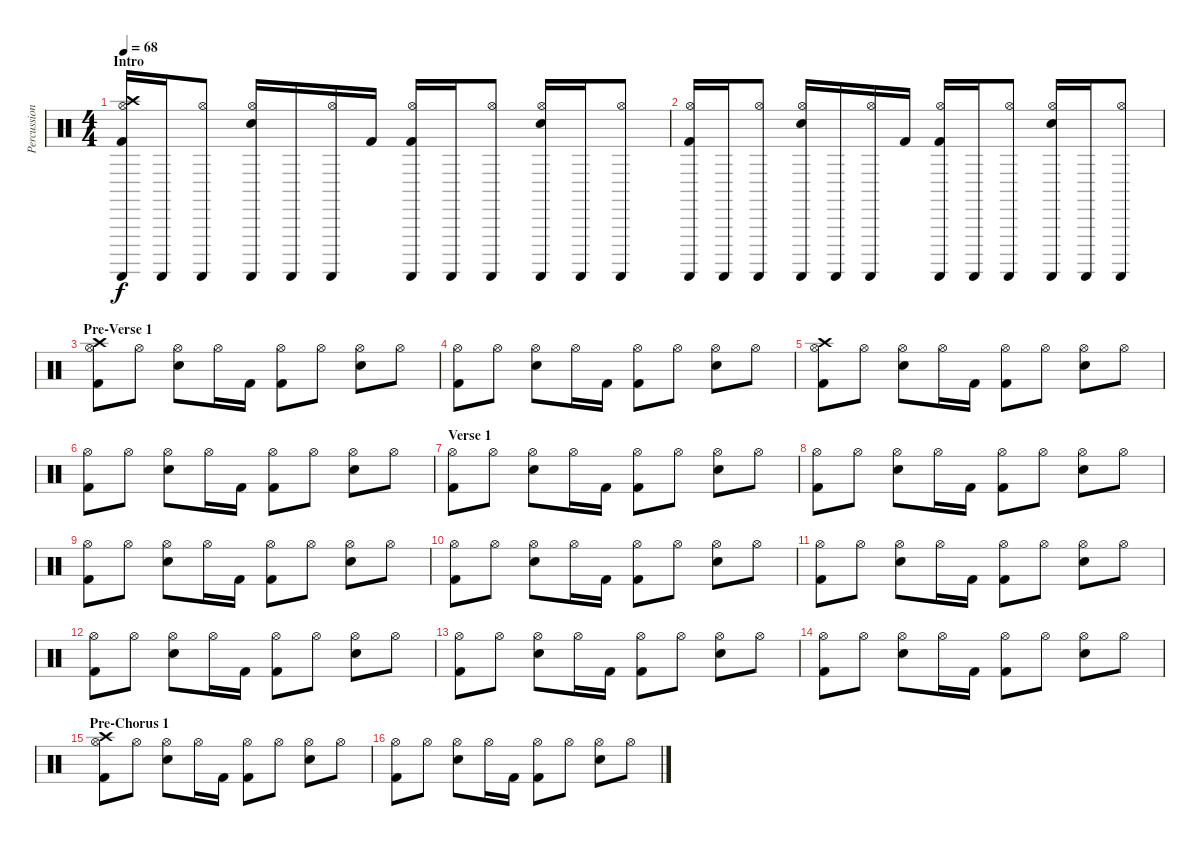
\track ("Percussions" "Percussion") {instrument percussion}
\staff {score}
\articulation defaults
\ts (4 4)
\section ("" "Intro")
\tempo 68
\clef neutral
\ks c
("Hi-Hat (open)" "Guiro (scrap-return)" "Crash high (hit)" "Kick (hit) 2").16{dy f} "Guiro (scrap-return)".16 ("Hi-Hat (open)" "Guiro (scrap-return)").8 ("Hi-Hat (open)" "Guiro (scrap-return)" "Snare (hit) 2").16 "Guiro (scrap-return)".16 ("Hi-Hat (open)" "Guiro (scrap-return)").16 "Kick (hit) 2".16 ("Hi-Hat (open)" "Guiro (scrap-return)" "Kick (hit) 2").16 "Guiro (scrap-return)".16 ("Hi-Hat (open)" "Guiro (scrap-return)").8 ("Hi-Hat (open)" "Guiro (scrap-return)" "Snare (hit) 2").16 "Guiro (scrap-return)".16 ("Hi-Hat (open)" "Guiro (scrap-return)").8 |
("Hi-Hat (open)" "Guiro (scrap-return)" "Kick (hit) 2").16 "Guiro (scrap-return)".16 ("Hi-Hat (open)" "Guiro (scrap-return)").8 ("Hi-Hat (open)" "Guiro (scrap-return)" "Snare (hit) 2").16 "Guiro (scrap-return)".16 ("Hi-Hat (open)" "Guiro (scrap-return)").16 "Kick (hit) 2".16 ("Hi-Hat (open)" "Guiro (scrap-return)" "Kick (hit) 2").16 "Guiro (scrap-return)".16 ("Hi-Hat (open)" "Guiro (scrap-return)").8 ("Hi-Hat (open)" "Guiro (scrap-return)" "Snare (hit) 2").16 "Guiro (scrap-return)".16 ("Hi-Hat (open)" "Guiro (scrap-return)").8 |
\section ("" "Pre-Verse 1")
("Hi-Hat (open)" "Crash high (hit)" "Kick (hit) 2").8 "Hi-Hat (open)".8 ("Hi-Hat (open)" "Snare (hit) 2").8 "Hi-Hat (open)".16 "Kick (hit) 2".16 ("Hi-Hat (open)" "Kick (hit) 2").8 "Hi-Hat (open)".8 ("Hi-Hat (open)" "Snare (hit) 2").8 "Hi-Hat (open)".8 |
("Hi-Hat (open)" "Kick (hit) 2").8 "Hi-Hat (open)".8 ("Hi-Hat (open)" "Snare (hit) 2").8 "Hi-Hat (open)".16 "Kick (hit) 2".16 ("Hi-Hat (open)" "Kick (hit) 2").8 "Hi-Hat (open)".8 ("Hi-Hat (open)" "Snare (hit) 2").8 "Hi-Hat (open)".8 |
("Hi-Hat (open)" "Crash high (hit)" "Kick (hit) 2").8 "Hi-Hat (open)".8 ("Hi-Hat (open)" "Snare (hit) 2").8 "Hi-Hat (open)".16 "Kick (hit) 2".16 ("Hi-Hat (open)" "Kick (hit) 2").8 "Hi-Hat (open)".8 ("Hi-Hat (open)" "Snare (hit) 2").8 "Hi-Hat (open)".8 |
("Hi-Hat (open)" "Kick (hit) 2").8 "Hi-Hat (open)".8 ("Hi-Hat (open)" "Snare (hit) 2").8 "Hi-Hat (open)".16 "Kick (hit) 2".16 ("Hi-Hat (open)" "Kick (hit) 2").8 "Hi-Hat (open)".8 ("Hi-Hat (open)" "Snare (hit) 2").8 "Hi-Hat (open)".8 |
\section ("" "Verse 1")
("Hi-Hat (open)" "Kick (hit) 2").8 "Hi-Hat (open)".8 ("Hi-Hat (open)" "Snare (hit) 2").8 "Hi-Hat (open)".16 "Kick (hit) 2".16 ("Hi-Hat (open)" "Kick (hit) 2").8 "Hi-Hat (open)".8 ("Hi-Hat (open)" "Snare (hit) 2").8 "Hi-Hat (open)".8 |
("Hi-Hat (open)" "Kick (hit) 2").8 "Hi-Hat (open)".8 ("Hi-Hat (open)" "Snare (hit) 2").8 "Hi-Hat (open)".16 "Kick (hit) 2".16 ("Hi-Hat (open)" "Kick (hit) 2").8 "Hi-Hat (open)".8 ("Hi-Hat (open)" "Snare (hit) 2").8 "Hi-Hat (open)".8 |
("Hi-Hat (open)" "Kick (hit) 2").8 "Hi-Hat (open)".8 ("Hi-Hat (open)" "Snare (hit) 2").8 "Hi-Hat (open)".16 "Kick (hit) 2".16 ("Hi-Hat (open)" "Kick (hit) 2").8 "Hi-Hat (open)".8 ("Hi-Hat (open)" "Snare (hit) 2").8 "Hi-Hat (open)".8 |
("Hi-Hat (open)" "Kick (hit) 2").8 "Hi-Hat (open)".8 ("Hi-Hat (open)" "Snare (hit) 2").8 "Hi-Hat (open)".16 "Kick (hit) 2".16 ("Hi-Hat (open)" "Kick (hit) 2").8 "Hi-Hat (open)".8 ("Hi-Hat (open)" "Snare (hit) 2").8 "Hi-Hat (open)".8 |
("Hi-Hat (open)" "Kick (hit) 2").8 "Hi-Hat (open)".8 ("Hi-Hat (open)" "Snare (hit) 2").8 "Hi-Hat (open)".16 "Kick (hit) 2".16 ("Hi-Hat (open)" "Kick (hit) 2").8 "Hi-Hat (open)".8 ("Hi-Hat (open)" "Snare (hit) 2").8 "Hi-Hat (open)".8 |
("Hi-Hat (open)" "Kick (hit) 2").8 "Hi-Hat (open)".8 ("Hi-Hat (open)" "Snare (hit) 2").8 "Hi-Hat (open)".16 "Kick (hit) 2".16 ("Hi-Hat (open)" "Kick (hit) 2").8 "Hi-Hat (open)".8 ("Hi-Hat (open)" "Snare (hit) 2").8 "Hi-Hat (open)".8 |
("Hi-Hat (open)" "Kick (hit) 2").8 "Hi-Hat (open)".8 ("Hi-Hat (open)" "Snare (hit) 2").8 "Hi-Hat (open)".16 "Kick (hit) 2".16 ("Hi-Hat (open)" "Kick (hit) 2").8 "Hi-Hat (open)".8 ("Hi-Hat (open)" "Snare (hit) 2").8 "Hi-Hat (open)".8 |
("Hi-Hat (open)" "Kick (hit) 2").8 "Hi-Hat (open)".8 ("Hi-Hat (open)" "Snare (hit) 2").8 "Hi-Hat (open)".16 "Kick (hit) 2".16 ("Hi-Hat (open)" "Kick (hit) 2").8 "Hi-Hat (open)".8 ("Hi-Hat (open)" "Snare (hit) 2").8 "Hi-Hat (open)".8 |
\section ("" "Pre-Chorus 1")
("Hi-Hat (open)" "Crash high (hit)" "Kick (hit) 2").8 "Hi-Hat (open)".8 ("Hi-Hat (open)" "Snare (hit) 2").8 "Hi-Hat (open)".16 "Kick (hit) 2".16 ("Hi-Hat (open)" "Kick (hit) 2").8 "Hi-Hat (open)".8 ("Hi-Hat (open)" "Snare (hit) 2").8 "Hi-Hat (open)".8 |
("Hi-Hat (open)" "Kick (hit) 2").8 "Hi-Hat (open)".8 ("Hi-Hat (open)" "Snare (hit) 2").8 "Hi-Hat (open)".16 "Kick (hit) 2".16 ("Hi-Hat (open)" "Kick (hit) 2").8 "Hi-Hat (open)".8 ("Hi-Hat (open)" "Snare (hit) 2").8 "Hi-Hat (open)".8
